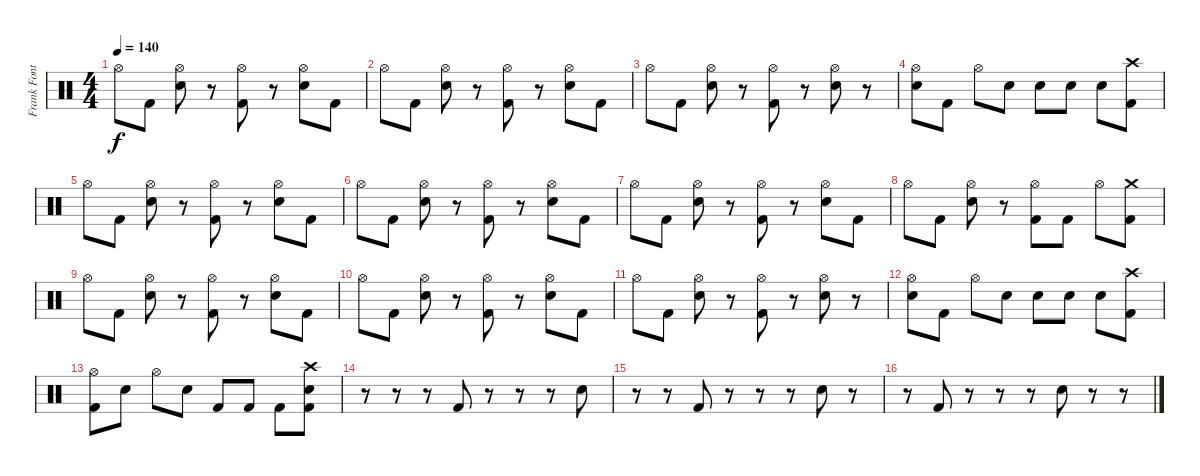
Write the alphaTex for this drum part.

\track ("Frank Fontsere" "Frank Font") {instrument percussion}
\staff {score}
\articulation defaults
\ts (4 4)
\tempo 140
\clef neutral
\ks c "Hi-Hat (open)".8{dy f} "Kick (hit) 2".8
("Hi-Hat (open)" "Electric Snare (hit)").8 r.8 ("Hi-Hat (open)" "Kick (hit) 2").8 r.8 ("Hi-Hat (open)" "Electric Snare (hit)").8 "Kick (hit) 2".8 |
"Hi-Hat (open)".8 "Kick (hit) 2".8 ("Hi-Hat (open)" "Electric Snare (hit)").8 r.8 ("Hi-Hat (open)" "Kick (hit) 2").8 r.8 ("Hi-Hat (open)" "Electric Snare (hit)").8 "Kick (hit) 2".8 |
"Hi-Hat (open)".8 "Kick (hit) 2".8 ("Hi-Hat (open)" "Electric Snare (hit)").8 r.8 ("Hi-Hat (open)" "Kick (hit) 2").8 r.8 ("Hi-Hat (open)" "Electric Snare (hit)").8 r.8 |
("Hi-Hat (open)" "Electric Snare (hit)").8 "Kick (hit) 2".8 "Hi-Hat (open)".8 "Electric Snare (hit)".8 "Electric Snare (hit)".8 "Electric Snare (hit)".8 "Electric Snare (hit)".8 ("Crash high (hit)" "Kick (hit) 2").8 |
"Hi-Hat (open)".8 "Kick (hit) 2".8 ("Hi-Hat (open)" "Electric Snare (hit)").8 r.8 ("Hi-Hat (open)" "Kick (hit) 2").8 r.8 ("Hi-Hat (open)" "Electric Snare (hit)").8 "Kick (hit) 2".8 |
"Hi-Hat (open)".8 "Kick (hit) 2".8 ("Hi-Hat (open)" "Electric Snare (hit)").8 r.8 ("Hi-Hat (open)" "Kick (hit) 2").8 r.8 ("Hi-Hat (open)" "Electric Snare (hit)").8 "Kick (hit) 2".8 |
"Hi-Hat (open)".8 "Kick (hit) 2".8 ("Hi-Hat (open)" "Electric Snare (hit)").8 r.8 ("Hi-Hat (open)" "Kick (hit) 2").8 r.8 ("Hi-Hat (open)" "Electric Snare (hit)").8 "Kick (hit) 2".8 |
"Hi-Hat (open)".8 "Kick (hit) 2".8 ("Hi-Hat (open)" "Electric Snare (hit)").8 r.8 ("Hi-Hat (open)" "Kick (hit) 2").8 "Kick (hit) 2".8 "Hi-Hat (open)".8 ("Crash medium (hit)" "Kick (hit) 2").8 |
"Hi-Hat (open)".8 "Kick (hit) 2".8 ("Hi-Hat (open)" "Electric Snare (hit)").8 r.8 ("Hi-Hat (open)" "Kick (hit) 2").8 r.8 ("Hi-Hat (open)" "Electric Snare (hit)").8 "Kick (hit) 2".8 |
"Hi-Hat (open)".8 "Kick (hit) 2".8 ("Hi-Hat (open)" "Electric Snare (hit)").8 r.8 ("Hi-Hat (open)" "Kick (hit) 2").8 r.8 ("Hi-Hat (open)" "Electric Snare (hit)").8 "Kick (hit) 2".8 |
"Hi-Hat (open)".8 "Kick (hit) 2".8 ("Hi-Hat (open)" "Electric Snare (hit)").8 r.8 ("Hi-Hat (open)" "Kick (hit) 2").8 r.8 ("Hi-Hat (open)" "Electric Snare (hit)").8 r.8 |
("Hi-Hat (open)" "Electric Snare (hit)").8 "Kick (hit) 2".8 "Hi-Hat (open)".8 "Electric Snare (hit)".8 "Electric Snare (hit)".8 "Electric Snare (hit)".8 "Electric Snare (hit)".8 ("Crash high (hit)" "Kick (hit) 2").8 |
("Hi-Hat (open)" "Kick (hit) 2").8 "Electric Snare (hit)".8 "Hi-Hat (open)".8 "Electric Snare (hit)".8 "Kick (hit) 2".8 "Kick (hit) 2".8 "Kick (hit) 2".8 ("Crash high (hit)" "Electric Snare (hit)" "Kick (hit) 2").8 |
r.8 r.8 r.8 "Kick (hit) 2".8 r.8 r.8 r.8 "Electric Snare (hit)".8 |
r.8 r.8 "Kick (hit) 2".8 r.8 r.8 r.8 "Electric Snare (hit)".8 r.8 |
r.8 "Kick (hit) 2".8 r.8 r.8 r.8 "Electric Snare (hit)".8 r.8 r.8
